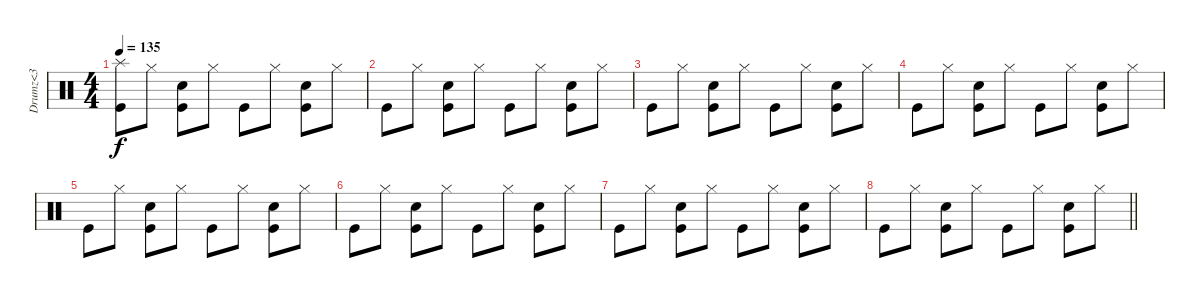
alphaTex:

\track ("Drumz<3" "Drumz<3") {instrument percussion}
\staff {score}
\articulation defaults
\ts (4 4)
\tempo 135
\clef neutral
\ks c
("Splash (hit)" "Kick (hit)").8{dy f} "Hi-Hat (closed)".8 ("Kick (hit)" "Snare (hit) 2").8 "Hi-Hat (closed)".8 "Kick (hit)".8 "Hi-Hat (closed)".8 ("Kick (hit)" "Snare (hit) 2").8 "Hi-Hat (closed)".8 |
"Kick (hit)".8 "Hi-Hat (closed)".8 ("Kick (hit)" "Snare (hit) 2").8 "Hi-Hat (closed)".8 "Kick (hit)".8 "Hi-Hat (closed)".8 ("Kick (hit)" "Snare (hit) 2").8 "Hi-Hat (closed)".8 |
"Kick (hit)".8 "Hi-Hat (closed)".8 ("Kick (hit)" "Snare (hit) 2").8 "Hi-Hat (closed)".8 "Kick (hit)".8 "Hi-Hat (closed)".8 ("Kick (hit)" "Snare (hit) 2").8 "Hi-Hat (closed)".8 |
"Kick (hit)".8{volume 0} "Hi-Hat (closed)".8 ("Kick (hit)" "Snare (hit) 2").8 "Hi-Hat (closed)".8 "Kick (hit)".8 "Hi-Hat (closed)".8 ("Kick (hit)" "Snare (hit) 2").8 "Hi-Hat (closed)".8 |
"Kick (hit)".8 "Hi-Hat (closed)".8 ("Kick (hit)" "Snare (hit) 2").8 "Hi-Hat (closed)".8 "Kick (hit)".8 "Hi-Hat (closed)".8 ("Kick (hit)" "Snare (hit) 2").8 "Hi-Hat (closed)".8 |
"Kick (hit)".8 "Hi-Hat (closed)".8 ("Kick (hit)" "Snare (hit) 2").8 "Hi-Hat (closed)".8 "Kick (hit)".8 "Hi-Hat (closed)".8 ("Kick (hit)" "Snare (hit) 2").8 "Hi-Hat (closed)".8 |
"Kick (hit)".8 "Hi-Hat (closed)".8 ("Kick (hit)" "Snare (hit) 2").8 "Hi-Hat (closed)".8 "Kick (hit)".8 "Hi-Hat (closed)".8 ("Kick (hit)" "Snare (hit) 2").8 "Hi-Hat (closed)".8 |
\barLineRight lightlight "Kick (hit)".8 "Hi-Hat (closed)".8
("Kick (hit)" "Snare (hit) 2").8 "Hi-Hat (closed)".8 "Kick (hit)".8 "Hi-Hat (closed)".8 ("Kick (hit)" "Snare (hit) 2").8 "Hi-Hat (closed)".8
